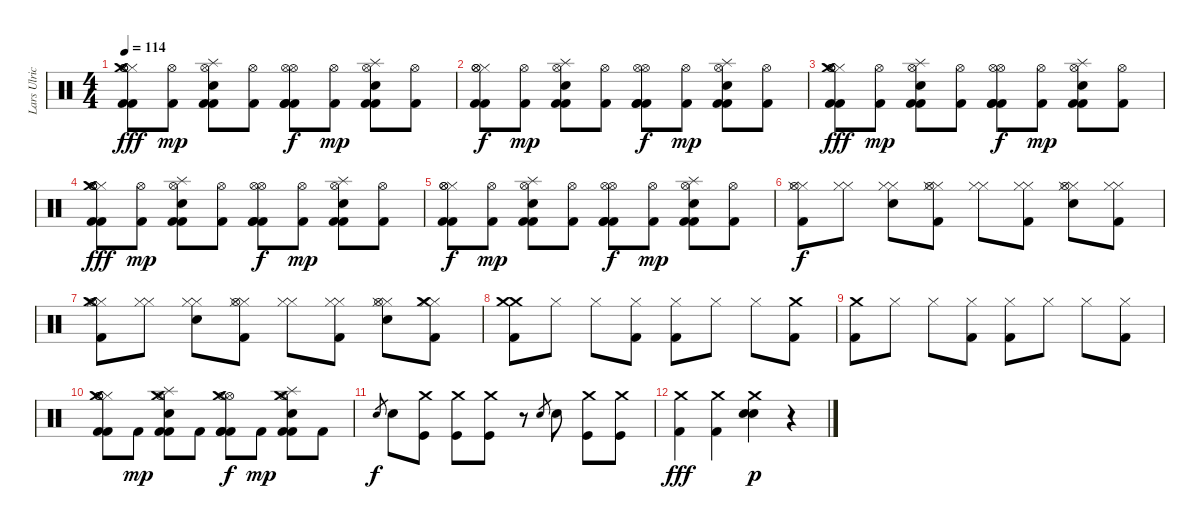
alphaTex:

\track ("Lars Ulrich" "Lars Ulric") {instrument percussion}
\staff {score}
\articulation defaults
\ts (4 4)
\tempo 114
\clef neutral
\ks c
("Hi-Hat (closed)" "Hi-Hat (open)" "Hi-Hat (open)" "Kick (hit) 2" "Kick (hit) 2" "Crash medium (hit)").8{dy fff} ("Hi-Hat (open)" "Kick (hit) 2").8{dy mp} ("Snare (hit) 2" "Splash (hit)" "Hi-Hat (open)" "Kick (hit) 2" "Kick (hit) 2").8 ("Hi-Hat (open)" "Kick (hit) 2").8 ("Kick (hit) 2" "Hi-Hat (open)" "Hi-Hat (open)" "Kick (hit) 2" "Kick (hit) 2").8{dy f} ("Hi-Hat (open)" "Kick (hit) 2").8{dy mp} ("Snare (hit) 2" "Splash (hit)" "Hi-Hat (open)" "Kick (hit) 2" "Kick (hit) 2").8 ("Hi-Hat (open)" "Kick (hit) 2").8 |
("Hi-Hat (closed)" "Hi-Hat (open)" "Hi-Hat (open)" "Kick (hit) 2" "Kick (hit) 2").8{dy f} ("Hi-Hat (open)" "Kick (hit) 2").8{dy mp} ("Snare (hit) 2" "Splash (hit)" "Hi-Hat (open)" "Kick (hit) 2" "Kick (hit) 2").8 ("Hi-Hat (open)" "Kick (hit) 2").8 ("Kick (hit) 2" "Hi-Hat (open)" "Hi-Hat (open)" "Kick (hit) 2" "Kick (hit) 2").8{dy f} ("Hi-Hat (open)" "Kick (hit) 2").8{dy mp} ("Snare (hit) 2" "Splash (hit)" "Hi-Hat (open)" "Kick (hit) 2" "Kick (hit) 2").8 ("Hi-Hat (open)" "Kick (hit) 2").8 |
("Hi-Hat (closed)" "Hi-Hat (open)" "Hi-Hat (open)" "Kick (hit) 2" "Kick (hit) 2" "Crash medium (hit)").8{dy fff} ("Hi-Hat (open)" "Kick (hit) 2").8{dy mp} ("Snare (hit) 2" "Splash (hit)" "Hi-Hat (open)" "Kick (hit) 2" "Kick (hit) 2").8 ("Hi-Hat (open)" "Kick (hit) 2").8 ("Kick (hit) 2" "Hi-Hat (open)" "Hi-Hat (open)" "Kick (hit) 2" "Kick (hit) 2").8{dy f} ("Hi-Hat (open)" "Kick (hit) 2").8{dy mp} ("Snare (hit) 2" "Splash (hit)" "Hi-Hat (open)" "Kick (hit) 2" "Kick (hit) 2").8 ("Hi-Hat (open)" "Kick (hit) 2").8 |
("Hi-Hat (closed)" "Hi-Hat (open)" "Hi-Hat (open)" "Kick (hit) 2" "Kick (hit) 2" "Crash medium (hit)").8{dy fff} ("Hi-Hat (open)" "Kick (hit) 2").8{dy mp} ("Snare (hit) 2" "Splash (hit)" "Hi-Hat (open)" "Kick (hit) 2" "Kick (hit) 2").8 ("Hi-Hat (open)" "Kick (hit) 2").8 ("Kick (hit) 2" "Hi-Hat (open)" "Hi-Hat (open)" "Kick (hit) 2" "Kick (hit) 2").8{dy f} ("Hi-Hat (open)" "Kick (hit) 2").8{dy mp} ("Snare (hit) 2" "Splash (hit)" "Hi-Hat (open)" "Kick (hit) 2" "Kick (hit) 2").8 ("Hi-Hat (open)" "Kick (hit) 2").8 |
("Hi-Hat (closed)" "Hi-Hat (open)" "Hi-Hat (open)" "Kick (hit) 2" "Kick (hit) 2").8{dy f} ("Hi-Hat (open)" "Kick (hit) 2").8{dy mp} ("Snare (hit) 2" "Splash (hit)" "Hi-Hat (open)" "Kick (hit) 2" "Kick (hit) 2").8 ("Hi-Hat (open)" "Kick (hit) 2").8 ("Kick (hit) 2" "Hi-Hat (open)" "Hi-Hat (open)" "Kick (hit) 2" "Kick (hit) 2").8{dy f} ("Hi-Hat (open)" "Kick (hit) 2").8{dy mp} ("Snare (hit) 2" "Splash (hit)" "Hi-Hat (open)" "Kick (hit) 2" "Kick (hit) 2").8 ("Hi-Hat (open)" "Kick (hit) 2").8 |
("Kick (hit) 2" "Hi-Hat (closed)" "Hi-Hat (closed)" "Hi-Hat (open)").8{dy f} ("Hi-Hat (closed)" "Hi-Hat (closed)").8 ("Electric Snare (hit)" "Hi-Hat (closed)" "Hi-Hat (closed)").8 ("Kick (hit) 2" "Hi-Hat (closed)" "Hi-Hat (closed)" "Hi-Hat (open)").8 ("Hi-Hat (closed)" "Hi-Hat (closed)").8 ("Kick (hit) 2" "Hi-Hat (closed)" "Hi-Hat (closed)").8 ("Electric Snare (hit)" "Hi-Hat (closed)" "Hi-Hat (closed)" "Hi-Hat (open)").8 ("Kick (hit) 2" "Hi-Hat (closed)" "Hi-Hat (closed)").8 |
("Kick (hit) 2" "Hi-Hat (closed)" "Hi-Hat (closed)" "Hi-Hat (open)" "Crash medium (hit)").8 ("Hi-Hat (closed)" "Hi-Hat (closed)").8 ("Electric Snare (hit)" "Hi-Hat (closed)" "Hi-Hat (closed)").8 ("Kick (hit) 2" "Hi-Hat (closed)" "Hi-Hat (closed)" "Hi-Hat (open)").8 ("Hi-Hat (closed)" "Hi-Hat (closed)").8 ("Kick (hit) 2" "Hi-Hat (closed)" "Hi-Hat (closed)").8 ("Electric Snare (hit)" "Hi-Hat (closed)" "Hi-Hat (closed)" "Hi-Hat (open)").8 ("Kick (hit) 2" "Hi-Hat (closed)" "Hi-Hat (closed)" "Crash medium (hit)").8 |
("Kick (hit) 2" "Crash medium (hit)" "Crash medium (hit)").8 "Hi-Hat (closed)".8 "Hi-Hat (closed)".8 ("Kick (hit) 2" "Hi-Hat (closed)").8 ("Kick (hit) 2" "Hi-Hat (closed)").8 "Hi-Hat (closed)".8 "Hi-Hat (closed)".8 ("Kick (hit) 2" "Crash medium (hit)").8 |
("Kick (hit) 2" "Crash medium (hit)").8 "Hi-Hat (closed)".8 "Hi-Hat (closed)".8 ("Kick (hit) 2" "Hi-Hat (closed)").8 ("Kick (hit) 2" "Hi-Hat (closed)").8 "Hi-Hat (closed)".8 "Hi-Hat (closed)".8 ("Kick (hit) 2" "Hi-Hat (closed)").8 |
("Hi-Hat (closed)" "Hi-Hat (open)" "Hi-Hat (open)" "Kick (hit) 2" "Kick (hit) 2" "Crash medium (hit)").8 "Kick (hit) 2".8{dy mp} ("Snare (hit) 2" "Splash (hit)" "Hi-Hat (open)" "Kick (hit) 2" "Kick (hit) 2" "Crash medium (hit)").8 "Kick (hit) 2".8 ("Kick (hit) 2" "Hi-Hat (open)" "Hi-Hat (open)" "Kick (hit) 2" "Kick (hit) 2" "Crash medium (hit)").8{dy f} "Kick (hit) 2".8{dy mp} ("Snare (hit) 2" "Splash (hit)" "Hi-Hat (open)" "Kick (hit) 2" "Kick (hit) 2" "Crash medium (hit)").8 "Kick (hit) 2".8 |
"Electric Snare (hit)".8{gr dy f} "Electric Snare (hit)".8 ("Kick (hit)" "Crash medium (hit)").8 ("Kick (hit)" "Crash medium (hit)").8 ("Kick (hit)" "Crash medium (hit)").8 r.8 "Electric Snare (hit)".8{gr} "Electric Snare (hit)".8 ("Kick (hit)" "Crash medium (hit)").8 ("Kick (hit)" "Crash medium (hit)").8 |
("Kick (hit) 2" "Crash medium (hit)").4{dy fff} ("Kick (hit) 2" "Crash medium (hit)").4 ("Electric Snare (hit)" "Crash medium (hit)" "Snare (hit) 2").4{dy p} r.4
